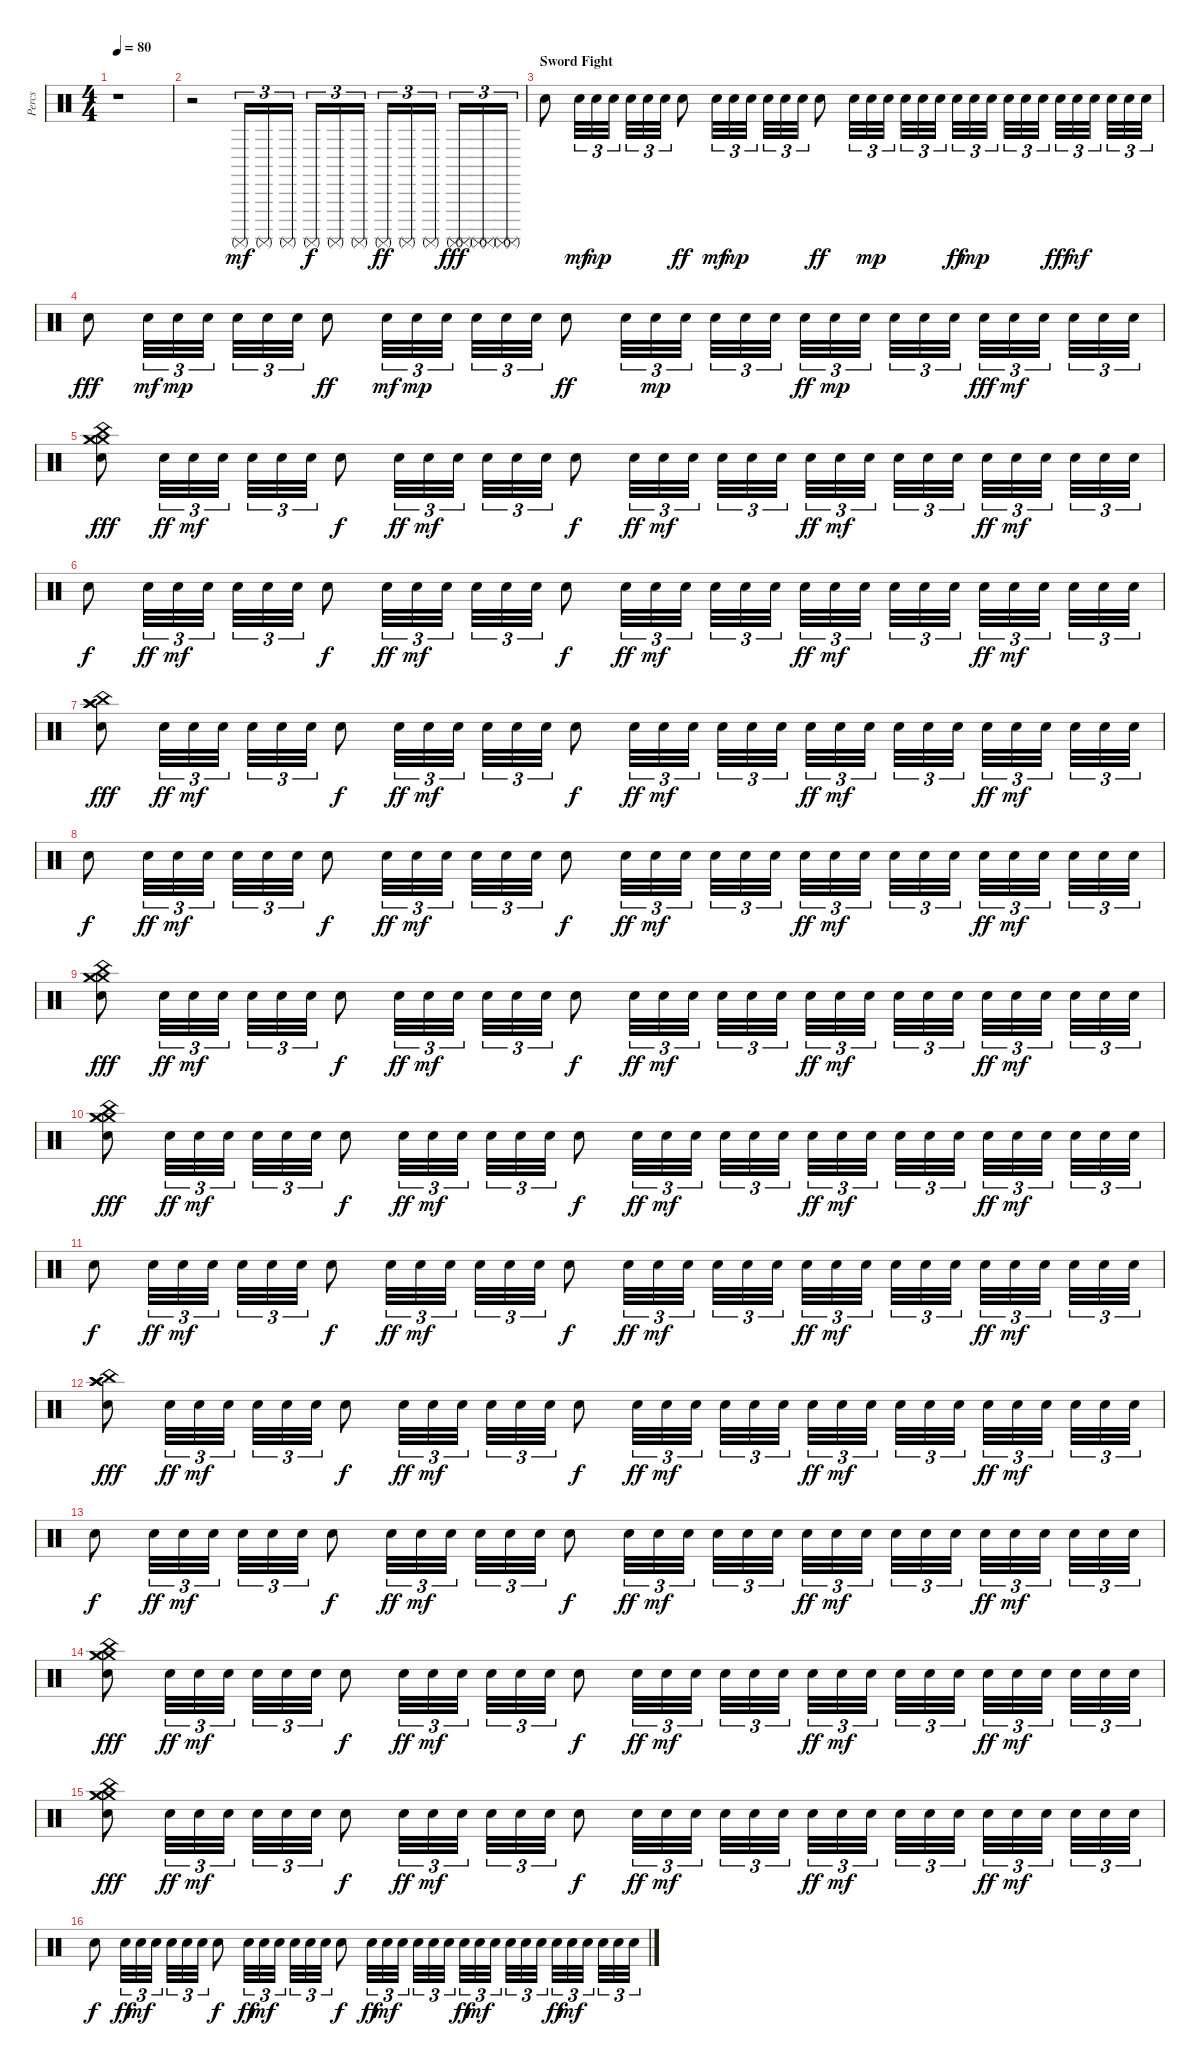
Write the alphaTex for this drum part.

\track ("Percs" "Percs") {instrument percussion}
\staff {score}
\articulation defaults
\ts (4 4)
\tempo 80
\clef neutral
\ks c
r.1{dy fff} |
r.2 "Surdo (mute)".16{tu (3 2) dy mf} "Surdo (mute)".16{tu (3 2)} "Surdo (mute)".16{tu (3 2)} "Surdo (mute)".16{tu (3 2) dy f} "Surdo (mute)".16{tu (3 2)} "Surdo (mute)".16{tu (3 2)} "Surdo (mute)".16{tu (3 2) dy ff} "Surdo (mute)".16{tu (3 2)} "Surdo (mute)".16{tu (3 2)} ("Surdo (mute)" "Surdo (mute)").16{tu (3 2) dy fff} ("Surdo (mute)" "Surdo (mute)").16{tu (3 2)} ("Surdo (mute)" "Surdo (mute)").16{tu (3 2)} |
\section ("" "Sword Fight")
"Snare (hit) 2".8 "Snare (hit) 2".32{tu (3 2) dy mf} "Snare (hit) 2".32{tu (3 2) dy mp} "Snare (hit) 2".32{tu (3 2)} "Snare (hit) 2".32{tu (3 2)} "Snare (hit) 2".32{tu (3 2)} "Snare (hit) 2".32{tu (3 2)} "Snare (hit) 2".8{dy ff} "Snare (hit) 2".32{tu (3 2) dy mf} "Snare (hit) 2".32{tu (3 2) dy mp} "Snare (hit) 2".32{tu (3 2)} "Snare (hit) 2".32{tu (3 2)} "Snare (hit) 2".32{tu (3 2)} "Snare (hit) 2".32{tu (3 2)} "Snare (hit) 2".8{dy ff} "Snare (hit) 2".32{tu (3 2)} "Snare (hit) 2".32{tu (3 2) dy mp} "Snare (hit) 2".32{tu (3 2)} "Snare (hit) 2".32{tu (3 2)} "Snare (hit) 2".32{tu (3 2)} "Snare (hit) 2".32{tu (3 2)} "Snare (hit) 2".32{tu (3 2) dy ff} "Snare (hit) 2".32{tu (3 2) dy mp} "Snare (hit) 2".32{tu (3 2)} "Snare (hit) 2".32{tu (3 2)} "Snare (hit) 2".32{tu (3 2)} "Snare (hit) 2".32{tu (3 2)} "Snare (hit) 2".32{tu (3 2) dy fff} "Snare (hit) 2".32{tu (3 2) dy mf} "Snare (hit) 2".32{tu (3 2)} "Snare (hit) 2".32{tu (3 2)} "Snare (hit) 2".32{tu (3 2)} "Snare (hit) 2".32{tu (3 2)} |
"Snare (hit) 2".8{dy fff} "Snare (hit) 2".32{tu (3 2) dy mf} "Snare (hit) 2".32{tu (3 2) dy mp} "Snare (hit) 2".32{tu (3 2)} "Snare (hit) 2".32{tu (3 2)} "Snare (hit) 2".32{tu (3 2)} "Snare (hit) 2".32{tu (3 2)} "Snare (hit) 2".8{dy ff} "Snare (hit) 2".32{tu (3 2) dy mf} "Snare (hit) 2".32{tu (3 2) dy mp} "Snare (hit) 2".32{tu (3 2)} "Snare (hit) 2".32{tu (3 2)} "Snare (hit) 2".32{tu (3 2)} "Snare (hit) 2".32{tu (3 2)} "Snare (hit) 2".8{dy ff} "Snare (hit) 2".32{tu (3 2)} "Snare (hit) 2".32{tu (3 2) dy mp} "Snare (hit) 2".32{tu (3 2)} "Snare (hit) 2".32{tu (3 2)} "Snare (hit) 2".32{tu (3 2)} "Snare (hit) 2".32{tu (3 2)} "Snare (hit) 2".32{tu (3 2) dy ff} "Snare (hit) 2".32{tu (3 2) dy mp} "Snare (hit) 2".32{tu (3 2)} "Snare (hit) 2".32{tu (3 2)} "Snare (hit) 2".32{tu (3 2)} "Snare (hit) 2".32{tu (3 2)} "Snare (hit) 2".32{tu (3 2) dy fff} "Snare (hit) 2".32{tu (3 2) dy mf} "Snare (hit) 2".32{tu (3 2)} "Snare (hit) 2".32{tu (3 2)} "Snare (hit) 2".32{tu (3 2)} "Snare (hit) 2".32{tu (3 2)} |
("Crash medium (hit)" "Crash medium (hit)" "Crash medium (hit)" "Snare (hit) 2" "China (hit)").8{dy fff volume 12} "Snare (hit) 2".32{tu (3 2) dy ff} "Snare (hit) 2".32{tu (3 2) dy mf} "Snare (hit) 2".32{tu (3 2)} "Snare (hit) 2".32{tu (3 2)} "Snare (hit) 2".32{tu (3 2)} "Snare (hit) 2".32{tu (3 2)} "Snare (hit) 2".8{dy f} "Snare (hit) 2".32{tu (3 2) dy ff} "Snare (hit) 2".32{tu (3 2) dy mf} "Snare (hit) 2".32{tu (3 2)} "Snare (hit) 2".32{tu (3 2)} "Snare (hit) 2".32{tu (3 2)} "Snare (hit) 2".32{tu (3 2)} "Snare (hit) 2".8{dy f} "Snare (hit) 2".32{tu (3 2) dy ff} "Snare (hit) 2".32{tu (3 2) dy mf} "Snare (hit) 2".32{tu (3 2)} "Snare (hit) 2".32{tu (3 2)} "Snare (hit) 2".32{tu (3 2)} "Snare (hit) 2".32{tu (3 2)} "Snare (hit) 2".32{tu (3 2) dy ff} "Snare (hit) 2".32{tu (3 2) dy mf} "Snare (hit) 2".32{tu (3 2)} "Snare (hit) 2".32{tu (3 2)} "Snare (hit) 2".32{tu (3 2)} "Snare (hit) 2".32{tu (3 2)} "Snare (hit) 2".32{tu (3 2) dy ff} "Snare (hit) 2".32{tu (3 2) dy mf} "Snare (hit) 2".32{tu (3 2)} "Snare (hit) 2".32{tu (3 2)} "Snare (hit) 2".32{tu (3 2)} "Snare (hit) 2".32{tu (3 2)} |
"Snare (hit) 2".8{dy f volume 12} "Snare (hit) 2".32{tu (3 2) dy ff} "Snare (hit) 2".32{tu (3 2) dy mf} "Snare (hit) 2".32{tu (3 2)} "Snare (hit) 2".32{tu (3 2)} "Snare (hit) 2".32{tu (3 2)} "Snare (hit) 2".32{tu (3 2)} "Snare (hit) 2".8{dy f} "Snare (hit) 2".32{tu (3 2) dy ff} "Snare (hit) 2".32{tu (3 2) dy mf} "Snare (hit) 2".32{tu (3 2)} "Snare (hit) 2".32{tu (3 2)} "Snare (hit) 2".32{tu (3 2)} "Snare (hit) 2".32{tu (3 2)} "Snare (hit) 2".8{dy f} "Snare (hit) 2".32{tu (3 2) dy ff} "Snare (hit) 2".32{tu (3 2) dy mf} "Snare (hit) 2".32{tu (3 2)} "Snare (hit) 2".32{tu (3 2)} "Snare (hit) 2".32{tu (3 2)} "Snare (hit) 2".32{tu (3 2)} "Snare (hit) 2".32{tu (3 2) dy ff} "Snare (hit) 2".32{tu (3 2) dy mf} "Snare (hit) 2".32{tu (3 2)} "Snare (hit) 2".32{tu (3 2)} "Snare (hit) 2".32{tu (3 2)} "Snare (hit) 2".32{tu (3 2)} "Snare (hit) 2".32{tu (3 2) dy ff} "Snare (hit) 2".32{tu (3 2) dy mf} "Snare (hit) 2".32{tu (3 2)} "Snare (hit) 2".32{tu (3 2)} "Snare (hit) 2".32{tu (3 2)} "Snare (hit) 2".32{tu (3 2)} |
("Crash high (hit)" "Crash high (hit)" "Crash high (hit)" "Snare (hit) 2" "China (hit)").8{dy fff volume 12} "Snare (hit) 2".32{tu (3 2) dy ff} "Snare (hit) 2".32{tu (3 2) dy mf} "Snare (hit) 2".32{tu (3 2)} "Snare (hit) 2".32{tu (3 2)} "Snare (hit) 2".32{tu (3 2)} "Snare (hit) 2".32{tu (3 2)} "Snare (hit) 2".8{dy f} "Snare (hit) 2".32{tu (3 2) dy ff} "Snare (hit) 2".32{tu (3 2) dy mf} "Snare (hit) 2".32{tu (3 2)} "Snare (hit) 2".32{tu (3 2)} "Snare (hit) 2".32{tu (3 2)} "Snare (hit) 2".32{tu (3 2)} "Snare (hit) 2".8{dy f} "Snare (hit) 2".32{tu (3 2) dy ff} "Snare (hit) 2".32{tu (3 2) dy mf} "Snare (hit) 2".32{tu (3 2)} "Snare (hit) 2".32{tu (3 2)} "Snare (hit) 2".32{tu (3 2)} "Snare (hit) 2".32{tu (3 2)} "Snare (hit) 2".32{tu (3 2) dy ff} "Snare (hit) 2".32{tu (3 2) dy mf} "Snare (hit) 2".32{tu (3 2)} "Snare (hit) 2".32{tu (3 2)} "Snare (hit) 2".32{tu (3 2)} "Snare (hit) 2".32{tu (3 2)} "Snare (hit) 2".32{tu (3 2) dy ff} "Snare (hit) 2".32{tu (3 2) dy mf} "Snare (hit) 2".32{tu (3 2)} "Snare (hit) 2".32{tu (3 2)} "Snare (hit) 2".32{tu (3 2)} "Snare (hit) 2".32{tu (3 2)} |
"Snare (hit) 2".8{dy f volume 12} "Snare (hit) 2".32{tu (3 2) dy ff} "Snare (hit) 2".32{tu (3 2) dy mf} "Snare (hit) 2".32{tu (3 2)} "Snare (hit) 2".32{tu (3 2)} "Snare (hit) 2".32{tu (3 2)} "Snare (hit) 2".32{tu (3 2)} "Snare (hit) 2".8{dy f} "Snare (hit) 2".32{tu (3 2) dy ff} "Snare (hit) 2".32{tu (3 2) dy mf} "Snare (hit) 2".32{tu (3 2)} "Snare (hit) 2".32{tu (3 2)} "Snare (hit) 2".32{tu (3 2)} "Snare (hit) 2".32{tu (3 2)} "Snare (hit) 2".8{dy f} "Snare (hit) 2".32{tu (3 2) dy ff} "Snare (hit) 2".32{tu (3 2) dy mf} "Snare (hit) 2".32{tu (3 2)} "Snare (hit) 2".32{tu (3 2)} "Snare (hit) 2".32{tu (3 2)} "Snare (hit) 2".32{tu (3 2)} "Snare (hit) 2".32{tu (3 2) dy ff} "Snare (hit) 2".32{tu (3 2) dy mf} "Snare (hit) 2".32{tu (3 2)} "Snare (hit) 2".32{tu (3 2)} "Snare (hit) 2".32{tu (3 2)} "Snare (hit) 2".32{tu (3 2)} "Snare (hit) 2".32{tu (3 2) dy ff} "Snare (hit) 2".32{tu (3 2) dy mf} "Snare (hit) 2".32{tu (3 2)} "Snare (hit) 2".32{tu (3 2)} "Snare (hit) 2".32{tu (3 2)} "Snare (hit) 2".32{tu (3 2)} |
("Crash medium (hit)" "Crash medium (hit)" "Crash medium (hit)" "Snare (hit) 2" "China (hit)").8{dy fff volume 12} "Snare (hit) 2".32{tu (3 2) dy ff} "Snare (hit) 2".32{tu (3 2) dy mf} "Snare (hit) 2".32{tu (3 2)} "Snare (hit) 2".32{tu (3 2)} "Snare (hit) 2".32{tu (3 2)} "Snare (hit) 2".32{tu (3 2)} "Snare (hit) 2".8{dy f} "Snare (hit) 2".32{tu (3 2) dy ff} "Snare (hit) 2".32{tu (3 2) dy mf} "Snare (hit) 2".32{tu (3 2)} "Snare (hit) 2".32{tu (3 2)} "Snare (hit) 2".32{tu (3 2)} "Snare (hit) 2".32{tu (3 2)} "Snare (hit) 2".8{dy f} "Snare (hit) 2".32{tu (3 2) dy ff} "Snare (hit) 2".32{tu (3 2) dy mf} "Snare (hit) 2".32{tu (3 2)} "Snare (hit) 2".32{tu (3 2)} "Snare (hit) 2".32{tu (3 2)} "Snare (hit) 2".32{tu (3 2)} "Snare (hit) 2".32{tu (3 2) dy ff} "Snare (hit) 2".32{tu (3 2) dy mf} "Snare (hit) 2".32{tu (3 2)} "Snare (hit) 2".32{tu (3 2)} "Snare (hit) 2".32{tu (3 2)} "Snare (hit) 2".32{tu (3 2)} "Snare (hit) 2".32{tu (3 2) dy ff} "Snare (hit) 2".32{tu (3 2) dy mf} "Snare (hit) 2".32{tu (3 2)} "Snare (hit) 2".32{tu (3 2)} "Snare (hit) 2".32{tu (3 2)} "Snare (hit) 2".32{tu (3 2)} |
("Crash medium (hit)" "Crash medium (hit)" "Crash medium (hit)" "Snare (hit) 2" "China (hit)").8{dy fff volume 12} "Snare (hit) 2".32{tu (3 2) dy ff} "Snare (hit) 2".32{tu (3 2) dy mf} "Snare (hit) 2".32{tu (3 2)} "Snare (hit) 2".32{tu (3 2)} "Snare (hit) 2".32{tu (3 2)} "Snare (hit) 2".32{tu (3 2)} "Snare (hit) 2".8{dy f} "Snare (hit) 2".32{tu (3 2) dy ff} "Snare (hit) 2".32{tu (3 2) dy mf} "Snare (hit) 2".32{tu (3 2)} "Snare (hit) 2".32{tu (3 2)} "Snare (hit) 2".32{tu (3 2)} "Snare (hit) 2".32{tu (3 2)} "Snare (hit) 2".8{dy f} "Snare (hit) 2".32{tu (3 2) dy ff} "Snare (hit) 2".32{tu (3 2) dy mf} "Snare (hit) 2".32{tu (3 2)} "Snare (hit) 2".32{tu (3 2)} "Snare (hit) 2".32{tu (3 2)} "Snare (hit) 2".32{tu (3 2)} "Snare (hit) 2".32{tu (3 2) dy ff} "Snare (hit) 2".32{tu (3 2) dy mf} "Snare (hit) 2".32{tu (3 2)} "Snare (hit) 2".32{tu (3 2)} "Snare (hit) 2".32{tu (3 2)} "Snare (hit) 2".32{tu (3 2)} "Snare (hit) 2".32{tu (3 2) dy ff} "Snare (hit) 2".32{tu (3 2) dy mf} "Snare (hit) 2".32{tu (3 2)} "Snare (hit) 2".32{tu (3 2)} "Snare (hit) 2".32{tu (3 2)} "Snare (hit) 2".32{tu (3 2)} |
"Snare (hit) 2".8{dy f volume 12} "Snare (hit) 2".32{tu (3 2) dy ff} "Snare (hit) 2".32{tu (3 2) dy mf} "Snare (hit) 2".32{tu (3 2)} "Snare (hit) 2".32{tu (3 2)} "Snare (hit) 2".32{tu (3 2)} "Snare (hit) 2".32{tu (3 2)} "Snare (hit) 2".8{dy f} "Snare (hit) 2".32{tu (3 2) dy ff} "Snare (hit) 2".32{tu (3 2) dy mf} "Snare (hit) 2".32{tu (3 2)} "Snare (hit) 2".32{tu (3 2)} "Snare (hit) 2".32{tu (3 2)} "Snare (hit) 2".32{tu (3 2)} "Snare (hit) 2".8{dy f} "Snare (hit) 2".32{tu (3 2) dy ff} "Snare (hit) 2".32{tu (3 2) dy mf} "Snare (hit) 2".32{tu (3 2)} "Snare (hit) 2".32{tu (3 2)} "Snare (hit) 2".32{tu (3 2)} "Snare (hit) 2".32{tu (3 2)} "Snare (hit) 2".32{tu (3 2) dy ff} "Snare (hit) 2".32{tu (3 2) dy mf} "Snare (hit) 2".32{tu (3 2)} "Snare (hit) 2".32{tu (3 2)} "Snare (hit) 2".32{tu (3 2)} "Snare (hit) 2".32{tu (3 2)} "Snare (hit) 2".32{tu (3 2) dy ff} "Snare (hit) 2".32{tu (3 2) dy mf} "Snare (hit) 2".32{tu (3 2)} "Snare (hit) 2".32{tu (3 2)} "Snare (hit) 2".32{tu (3 2)} "Snare (hit) 2".32{tu (3 2)} |
("Crash high (hit)" "Crash high (hit)" "Crash high (hit)" "Snare (hit) 2" "China (hit)").8{dy fff volume 12} "Snare (hit) 2".32{tu (3 2) dy ff} "Snare (hit) 2".32{tu (3 2) dy mf} "Snare (hit) 2".32{tu (3 2)} "Snare (hit) 2".32{tu (3 2)} "Snare (hit) 2".32{tu (3 2)} "Snare (hit) 2".32{tu (3 2)} "Snare (hit) 2".8{dy f} "Snare (hit) 2".32{tu (3 2) dy ff} "Snare (hit) 2".32{tu (3 2) dy mf} "Snare (hit) 2".32{tu (3 2)} "Snare (hit) 2".32{tu (3 2)} "Snare (hit) 2".32{tu (3 2)} "Snare (hit) 2".32{tu (3 2)} "Snare (hit) 2".8{dy f} "Snare (hit) 2".32{tu (3 2) dy ff} "Snare (hit) 2".32{tu (3 2) dy mf} "Snare (hit) 2".32{tu (3 2)} "Snare (hit) 2".32{tu (3 2)} "Snare (hit) 2".32{tu (3 2)} "Snare (hit) 2".32{tu (3 2)} "Snare (hit) 2".32{tu (3 2) dy ff} "Snare (hit) 2".32{tu (3 2) dy mf} "Snare (hit) 2".32{tu (3 2)} "Snare (hit) 2".32{tu (3 2)} "Snare (hit) 2".32{tu (3 2)} "Snare (hit) 2".32{tu (3 2)} "Snare (hit) 2".32{tu (3 2) dy ff} "Snare (hit) 2".32{tu (3 2) dy mf} "Snare (hit) 2".32{tu (3 2)} "Snare (hit) 2".32{tu (3 2)} "Snare (hit) 2".32{tu (3 2)} "Snare (hit) 2".32{tu (3 2)} |
"Snare (hit) 2".8{dy f volume 12} "Snare (hit) 2".32{tu (3 2) dy ff} "Snare (hit) 2".32{tu (3 2) dy mf} "Snare (hit) 2".32{tu (3 2)} "Snare (hit) 2".32{tu (3 2)} "Snare (hit) 2".32{tu (3 2)} "Snare (hit) 2".32{tu (3 2)} "Snare (hit) 2".8{dy f} "Snare (hit) 2".32{tu (3 2) dy ff} "Snare (hit) 2".32{tu (3 2) dy mf} "Snare (hit) 2".32{tu (3 2)} "Snare (hit) 2".32{tu (3 2)} "Snare (hit) 2".32{tu (3 2)} "Snare (hit) 2".32{tu (3 2)} "Snare (hit) 2".8{dy f} "Snare (hit) 2".32{tu (3 2) dy ff} "Snare (hit) 2".32{tu (3 2) dy mf} "Snare (hit) 2".32{tu (3 2)} "Snare (hit) 2".32{tu (3 2)} "Snare (hit) 2".32{tu (3 2)} "Snare (hit) 2".32{tu (3 2)} "Snare (hit) 2".32{tu (3 2) dy ff} "Snare (hit) 2".32{tu (3 2) dy mf} "Snare (hit) 2".32{tu (3 2)} "Snare (hit) 2".32{tu (3 2)} "Snare (hit) 2".32{tu (3 2)} "Snare (hit) 2".32{tu (3 2)} "Snare (hit) 2".32{tu (3 2) dy ff} "Snare (hit) 2".32{tu (3 2) dy mf} "Snare (hit) 2".32{tu (3 2)} "Snare (hit) 2".32{tu (3 2)} "Snare (hit) 2".32{tu (3 2)} "Snare (hit) 2".32{tu (3 2)} |
("Crash medium (hit)" "Crash medium (hit)" "Crash medium (hit)" "Snare (hit) 2" "China (hit)").8{dy fff volume 12} "Snare (hit) 2".32{tu (3 2) dy ff} "Snare (hit) 2".32{tu (3 2) dy mf} "Snare (hit) 2".32{tu (3 2)} "Snare (hit) 2".32{tu (3 2)} "Snare (hit) 2".32{tu (3 2)} "Snare (hit) 2".32{tu (3 2)} "Snare (hit) 2".8{dy f} "Snare (hit) 2".32{tu (3 2) dy ff} "Snare (hit) 2".32{tu (3 2) dy mf} "Snare (hit) 2".32{tu (3 2)} "Snare (hit) 2".32{tu (3 2)} "Snare (hit) 2".32{tu (3 2)} "Snare (hit) 2".32{tu (3 2)} "Snare (hit) 2".8{dy f} "Snare (hit) 2".32{tu (3 2) dy ff} "Snare (hit) 2".32{tu (3 2) dy mf} "Snare (hit) 2".32{tu (3 2)} "Snare (hit) 2".32{tu (3 2)} "Snare (hit) 2".32{tu (3 2)} "Snare (hit) 2".32{tu (3 2)} "Snare (hit) 2".32{tu (3 2) dy ff} "Snare (hit) 2".32{tu (3 2) dy mf} "Snare (hit) 2".32{tu (3 2)} "Snare (hit) 2".32{tu (3 2)} "Snare (hit) 2".32{tu (3 2)} "Snare (hit) 2".32{tu (3 2)} "Snare (hit) 2".32{tu (3 2) dy ff} "Snare (hit) 2".32{tu (3 2) dy mf} "Snare (hit) 2".32{tu (3 2)} "Snare (hit) 2".32{tu (3 2)} "Snare (hit) 2".32{tu (3 2)} "Snare (hit) 2".32{tu (3 2)} |
("Crash medium (hit)" "Crash medium (hit)" "Crash medium (hit)" "Snare (hit) 2" "China (hit)").8{dy fff volume 12} "Snare (hit) 2".32{tu (3 2) dy ff} "Snare (hit) 2".32{tu (3 2) dy mf} "Snare (hit) 2".32{tu (3 2)} "Snare (hit) 2".32{tu (3 2)} "Snare (hit) 2".32{tu (3 2)} "Snare (hit) 2".32{tu (3 2)} "Snare (hit) 2".8{dy f} "Snare (hit) 2".32{tu (3 2) dy ff} "Snare (hit) 2".32{tu (3 2) dy mf} "Snare (hit) 2".32{tu (3 2)} "Snare (hit) 2".32{tu (3 2)} "Snare (hit) 2".32{tu (3 2)} "Snare (hit) 2".32{tu (3 2)} "Snare (hit) 2".8{dy f} "Snare (hit) 2".32{tu (3 2) dy ff} "Snare (hit) 2".32{tu (3 2) dy mf} "Snare (hit) 2".32{tu (3 2)} "Snare (hit) 2".32{tu (3 2)} "Snare (hit) 2".32{tu (3 2)} "Snare (hit) 2".32{tu (3 2)} "Snare (hit) 2".32{tu (3 2) dy ff} "Snare (hit) 2".32{tu (3 2) dy mf} "Snare (hit) 2".32{tu (3 2)} "Snare (hit) 2".32{tu (3 2)} "Snare (hit) 2".32{tu (3 2)} "Snare (hit) 2".32{tu (3 2)} "Snare (hit) 2".32{tu (3 2) dy ff} "Snare (hit) 2".32{tu (3 2) dy mf} "Snare (hit) 2".32{tu (3 2)} "Snare (hit) 2".32{tu (3 2)} "Snare (hit) 2".32{tu (3 2)} "Snare (hit) 2".32{tu (3 2)} |
"Snare (hit) 2".8{dy f volume 12} "Snare (hit) 2".32{tu (3 2) dy ff} "Snare (hit) 2".32{tu (3 2) dy mf} "Snare (hit) 2".32{tu (3 2)} "Snare (hit) 2".32{tu (3 2)} "Snare (hit) 2".32{tu (3 2)} "Snare (hit) 2".32{tu (3 2)} "Snare (hit) 2".8{dy f} "Snare (hit) 2".32{tu (3 2) dy ff} "Snare (hit) 2".32{tu (3 2) dy mf} "Snare (hit) 2".32{tu (3 2)} "Snare (hit) 2".32{tu (3 2)} "Snare (hit) 2".32{tu (3 2)} "Snare (hit) 2".32{tu (3 2)} "Snare (hit) 2".8{dy f} "Snare (hit) 2".32{tu (3 2) dy ff} "Snare (hit) 2".32{tu (3 2) dy mf} "Snare (hit) 2".32{tu (3 2)} "Snare (hit) 2".32{tu (3 2)} "Snare (hit) 2".32{tu (3 2)} "Snare (hit) 2".32{tu (3 2)} "Snare (hit) 2".32{tu (3 2) dy ff} "Snare (hit) 2".32{tu (3 2) dy mf} "Snare (hit) 2".32{tu (3 2)} "Snare (hit) 2".32{tu (3 2)} "Snare (hit) 2".32{tu (3 2)} "Snare (hit) 2".32{tu (3 2)} "Snare (hit) 2".32{tu (3 2) dy ff} "Snare (hit) 2".32{tu (3 2) dy mf} "Snare (hit) 2".32{tu (3 2)} "Snare (hit) 2".32{tu (3 2)} "Snare (hit) 2".32{tu (3 2)} "Snare (hit) 2".32{tu (3 2)}
